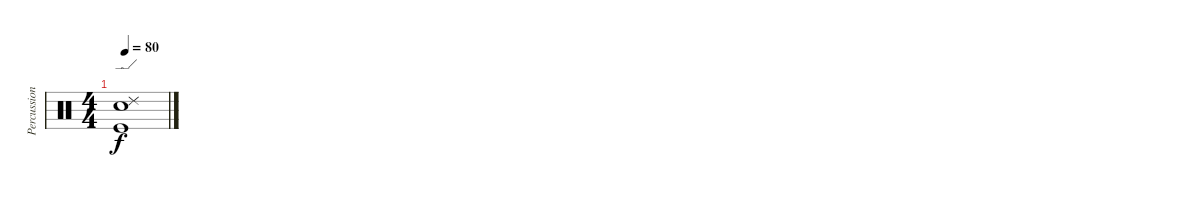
\track ("Percussions" "Percussion") {instrument percussion}
\staff {score}
\articulation defaults
\ts (4 4)
\tempo 80
\clef neutral
\ks c
("Ride (edge) 2" "Electric Snare (hit)" "Kick (hit)").1{dy f}
